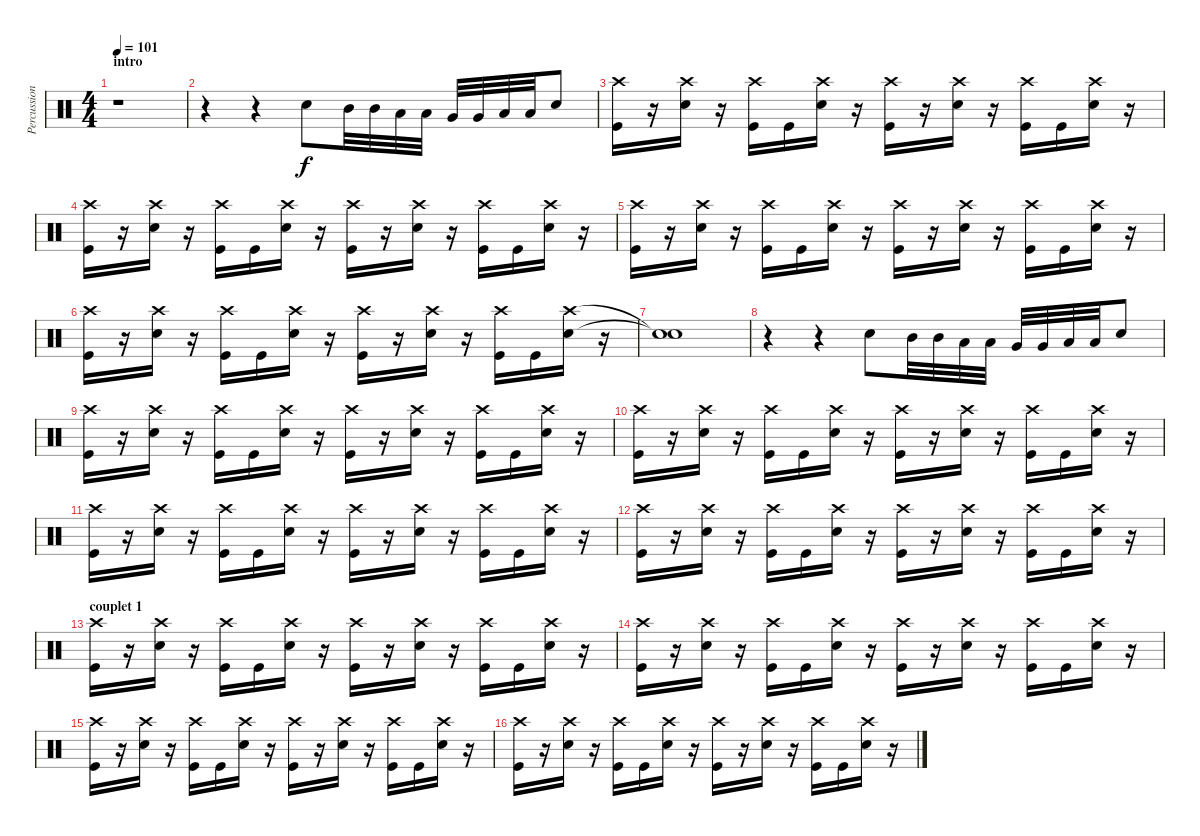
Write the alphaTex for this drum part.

\track ("Percussions" "Percussion") {instrument percussion}
\staff {score}
\articulation defaults
\ts (4 4)
\section ("" "intro")
\tempo 101
\clef neutral
\ks c
r.1{dy f} |
r.4 r.4 "Electric Snare (hit)".8 "Mid Tom (hit)".32 "Mid Tom (hit)".32 "Low Tom (hit)".32 "Low Tom (hit)".32 "Very Low Tom (hit)".32 "Very Low Tom (hit)".32 "Low Floor Tom (hit)".32 "Low Floor Tom (hit)".32 "Electric Snare (hit)".8 |
("Crash high (hit)" "Kick (hit)").16 r.16 ("Crash high (hit)" "Electric Snare (hit)").16 r.16 ("Crash high (hit)" "Kick (hit)").16 "Kick (hit)".16 ("Crash high (hit)" "Electric Snare (hit)").16 r.16 ("Crash high (hit)" "Kick (hit)").16 r.16 ("Crash high (hit)" "Electric Snare (hit)").16 r.16 ("Crash high (hit)" "Kick (hit)").16 "Kick (hit)".16 ("Crash high (hit)" "Electric Snare (hit)").16 r.16 |
("Crash high (hit)" "Kick (hit)").16 r.16 ("Crash high (hit)" "Electric Snare (hit)").16 r.16 ("Crash high (hit)" "Kick (hit)").16 "Kick (hit)".16 ("Crash high (hit)" "Electric Snare (hit)").16 r.16 ("Crash high (hit)" "Kick (hit)").16 r.16 ("Crash high (hit)" "Electric Snare (hit)").16 r.16 ("Crash high (hit)" "Kick (hit)").16 "Kick (hit)".16 ("Crash high (hit)" "Electric Snare (hit)").16 r.16 |
("Crash high (hit)" "Kick (hit)").16 r.16 ("Crash high (hit)" "Electric Snare (hit)").16 r.16 ("Crash high (hit)" "Kick (hit)").16 "Kick (hit)".16 ("Crash high (hit)" "Electric Snare (hit)").16 r.16 ("Crash high (hit)" "Kick (hit)").16 r.16 ("Crash high (hit)" "Electric Snare (hit)").16 r.16 ("Crash high (hit)" "Kick (hit)").16 "Kick (hit)".16 ("Crash high (hit)" "Electric Snare (hit)").16 r.16 |
("Crash high (hit)" "Kick (hit)").16 r.16 ("Crash high (hit)" "Electric Snare (hit)").16 r.16 ("Crash high (hit)" "Kick (hit)").16 "Kick (hit)".16 ("Crash high (hit)" "Electric Snare (hit)").16 r.16 ("Crash high (hit)" "Kick (hit)").16 r.16 ("Crash high (hit)" "Electric Snare (hit)").16 r.16 ("Crash high (hit)" "Kick (hit)").16 "Kick (hit)".16 ("Crash high (hit)" "Electric Snare (hit)").16 r.16 |
("Snare (hit)"{t} "Snare (hit)"{t}).1 |
r.4 r.4 "Electric Snare (hit)".8 "Mid Tom (hit)".32 "Mid Tom (hit)".32 "Low Tom (hit)".32 "Low Tom (hit)".32 "Very Low Tom (hit)".32 "Very Low Tom (hit)".32 "Low Floor Tom (hit)".32 "Low Floor Tom (hit)".32 "Electric Snare (hit)".8 |
("Crash high (hit)" "Kick (hit)").16 r.16 ("Crash high (hit)" "Electric Snare (hit)").16 r.16 ("Crash high (hit)" "Kick (hit)").16 "Kick (hit)".16 ("Crash high (hit)" "Electric Snare (hit)").16 r.16 ("Crash high (hit)" "Kick (hit)").16 r.16 ("Crash high (hit)" "Electric Snare (hit)").16 r.16 ("Crash high (hit)" "Kick (hit)").16 "Kick (hit)".16 ("Crash high (hit)" "Electric Snare (hit)").16 r.16 |
("Crash high (hit)" "Kick (hit)").16 r.16 ("Crash high (hit)" "Electric Snare (hit)").16 r.16 ("Crash high (hit)" "Kick (hit)").16 "Kick (hit)".16 ("Crash high (hit)" "Electric Snare (hit)").16 r.16 ("Crash high (hit)" "Kick (hit)").16 r.16 ("Crash high (hit)" "Electric Snare (hit)").16 r.16 ("Crash high (hit)" "Kick (hit)").16 "Kick (hit)".16 ("Crash high (hit)" "Electric Snare (hit)").16 r.16 |
("Crash high (hit)" "Kick (hit)").16 r.16 ("Crash high (hit)" "Electric Snare (hit)").16 r.16 ("Crash high (hit)" "Kick (hit)").16 "Kick (hit)".16 ("Crash high (hit)" "Electric Snare (hit)").16 r.16 ("Crash high (hit)" "Kick (hit)").16 r.16 ("Crash high (hit)" "Electric Snare (hit)").16 r.16 ("Crash high (hit)" "Kick (hit)").16 "Kick (hit)".16 ("Crash high (hit)" "Electric Snare (hit)").16 r.16 |
("Crash high (hit)" "Kick (hit)").16 r.16 ("Crash high (hit)" "Electric Snare (hit)").16 r.16 ("Crash high (hit)" "Kick (hit)").16 "Kick (hit)".16 ("Crash high (hit)" "Electric Snare (hit)").16 r.16 ("Crash high (hit)" "Kick (hit)").16 r.16 ("Crash high (hit)" "Electric Snare (hit)").16 r.16 ("Crash high (hit)" "Kick (hit)").16 "Kick (hit)".16 ("Crash high (hit)" "Electric Snare (hit)").16 r.16 |
\section ("" "couplet 1")
("Crash high (hit)" "Kick (hit)").16 r.16 ("Crash high (hit)" "Electric Snare (hit)").16 r.16 ("Crash high (hit)" "Kick (hit)").16 "Kick (hit)".16 ("Crash high (hit)" "Electric Snare (hit)").16 r.16 ("Crash high (hit)" "Kick (hit)").16 r.16 ("Crash high (hit)" "Electric Snare (hit)").16 r.16 ("Crash high (hit)" "Kick (hit)").16 "Kick (hit)".16 ("Crash high (hit)" "Electric Snare (hit)").16 r.16 |
("Crash high (hit)" "Kick (hit)").16 r.16 ("Crash high (hit)" "Electric Snare (hit)").16 r.16 ("Crash high (hit)" "Kick (hit)").16 "Kick (hit)".16 ("Crash high (hit)" "Electric Snare (hit)").16 r.16 ("Crash high (hit)" "Kick (hit)").16 r.16 ("Crash high (hit)" "Electric Snare (hit)").16 r.16 ("Crash high (hit)" "Kick (hit)").16 "Kick (hit)".16 ("Crash high (hit)" "Electric Snare (hit)").16 r.16 |
("Crash high (hit)" "Kick (hit)").16 r.16 ("Crash high (hit)" "Electric Snare (hit)").16 r.16 ("Crash high (hit)" "Kick (hit)").16 "Kick (hit)".16 ("Crash high (hit)" "Electric Snare (hit)").16 r.16 ("Crash high (hit)" "Kick (hit)").16 r.16 ("Crash high (hit)" "Electric Snare (hit)").16 r.16 ("Crash high (hit)" "Kick (hit)").16 "Kick (hit)".16 ("Crash high (hit)" "Electric Snare (hit)").16 r.16 |
("Crash high (hit)" "Kick (hit)").16 r.16 ("Crash high (hit)" "Electric Snare (hit)").16 r.16 ("Crash high (hit)" "Kick (hit)").16 "Kick (hit)".16 ("Crash high (hit)" "Electric Snare (hit)").16 r.16 ("Crash high (hit)" "Kick (hit)").16 r.16 ("Crash high (hit)" "Electric Snare (hit)").16 r.16 ("Crash high (hit)" "Kick (hit)").16 "Kick (hit)".16 ("Crash high (hit)" "Electric Snare (hit)").16 r.16
